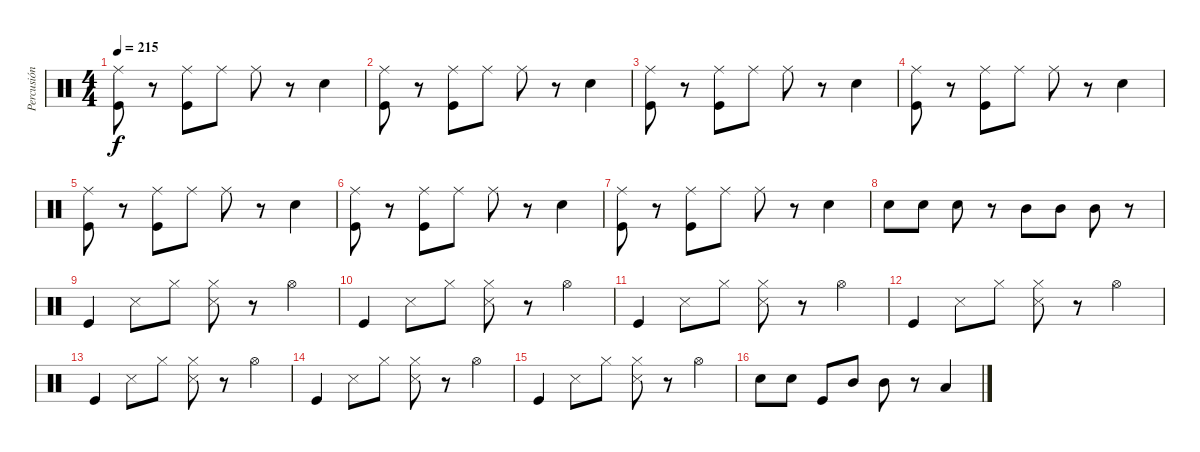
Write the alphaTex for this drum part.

\track ("Percusión" "Percusión") {instrument percussion}
\staff {score}
\articulation defaults
\ts (4 4)
\tempo 215
\clef neutral
\ks c
("Ride (middle)" "Kick (hit)").8{dy f} r.8 ("Ride (middle)" "Kick (hit)").8 "Ride (middle)".8 "Ride (middle)".8 r.8 "Snare (hit) 2".4 |
("Ride (middle)" "Kick (hit)").8 r.8 ("Ride (middle)" "Kick (hit)").8 "Ride (middle)".8 "Ride (middle)".8 r.8 "Snare (hit) 2".4 |
("Ride (middle)" "Kick (hit)").8 r.8 ("Ride (middle)" "Kick (hit)").8 "Ride (middle)".8 "Ride (middle)".8 r.8 "Snare (hit) 2".4 |
("Ride (middle)" "Kick (hit)").8 r.8 ("Ride (middle)" "Kick (hit)").8 "Ride (middle)".8 "Ride (middle)".8 r.8 "Snare (hit) 2".4 |
("Ride (middle)" "Kick (hit)").8 r.8 ("Ride (middle)" "Kick (hit)").8 "Ride (middle)".8 "Ride (middle)".8 r.8 "Snare (hit) 2".4 |
("Ride (middle)" "Kick (hit)").8 r.8 ("Ride (middle)" "Kick (hit)").8 "Ride (middle)".8 "Ride (middle)".8 r.8 "Snare (hit) 2".4 |
("Ride (middle)" "Kick (hit)").8 r.8 ("Ride (middle)" "Kick (hit)").8 "Ride (middle)".8 "Ride (middle)".8 r.8 "Snare (hit) 2".4 |
"Snare (hit) 2".8 "Snare (hit) 2".8 "Snare (hit) 2".8 r.8 "Mid Tom (hit)".8 "Mid Tom (hit)".8 "Mid Tom (hit)".8 r.8 |
"Kick (hit)".4 "Snare (side stick) 3".8 "Hi-Hat (closed)".8 ("Hi-Hat (closed)" "Snare (side stick) 3").8 r.8 "Hi-Hat (open)".4 |
"Kick (hit)".4 "Snare (side stick) 3".8 "Hi-Hat (closed)".8 ("Hi-Hat (closed)" "Snare (side stick) 3").8 r.8 "Hi-Hat (open)".4 |
"Kick (hit)".4 "Snare (side stick) 3".8 "Hi-Hat (closed)".8 ("Hi-Hat (closed)" "Snare (side stick) 3").8 r.8 "Hi-Hat (open)".4 |
"Kick (hit)".4 "Snare (side stick) 3".8 "Hi-Hat (closed)".8 ("Hi-Hat (closed)" "Snare (side stick) 3").8 r.8 "Hi-Hat (open)".4 |
"Kick (hit)".4 "Snare (side stick) 3".8 "Hi-Hat (closed)".8 ("Hi-Hat (closed)" "Snare (side stick) 3").8 r.8 "Hi-Hat (open)".4 |
"Kick (hit)".4 "Snare (side stick) 3".8 "Hi-Hat (closed)".8 ("Hi-Hat (closed)" "Snare (side stick) 3").8 r.8 "Hi-Hat (open)".4 |
"Kick (hit)".4 "Snare (side stick) 3".8 "Hi-Hat (closed)".8 ("Hi-Hat (closed)" "Snare (side stick) 3").8 r.8 "Hi-Hat (open)".4 |
"Snare (hit) 2".8 "Snare (hit) 2".8 "Kick (hit)".8 "Mid Tom (hit)".8 "Mid Tom (hit)".8 r.8 "Low Tom (hit)".4
